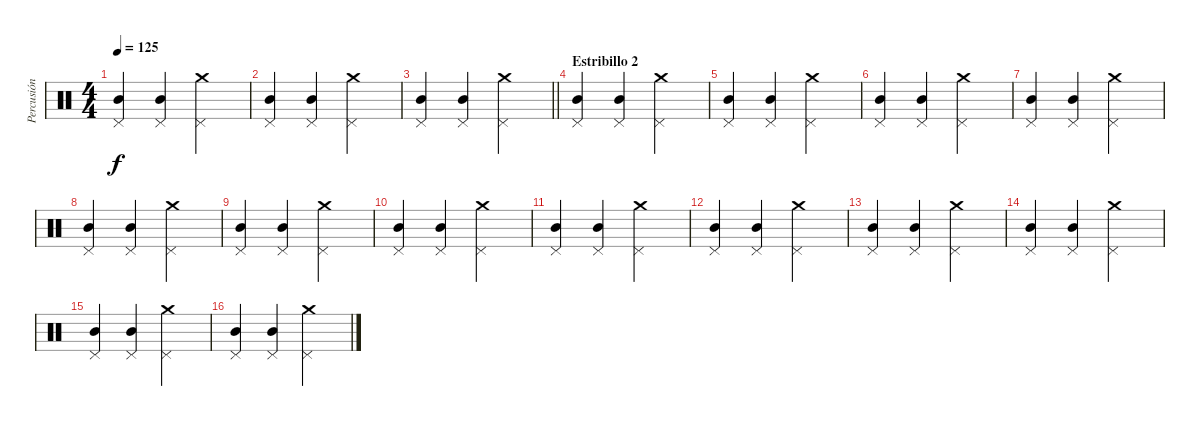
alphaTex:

\track ("Percusión" "Percusión") {instrument percussion}
\staff {score}
\articulation defaults
\ts (4 4)
\tempo 125
\clef neutral
\ks c
("Pedal Hi-Hat (hit)" "Mid Tom (hit)").4{dy f} ("Pedal Hi-Hat (hit)" "Mid Tom (hit)").4 ("Crash medium (hit)" "Pedal Hi-Hat (hit)").2 |
("Pedal Hi-Hat (hit)" "Mid Tom (hit)").4 ("Pedal Hi-Hat (hit)" "Mid Tom (hit)").4 ("Crash medium (hit)" "Pedal Hi-Hat (hit)").2 |
\barLineRight lightlight
("Pedal Hi-Hat (hit)" "Mid Tom (hit)").4 ("Pedal Hi-Hat (hit)" "Mid Tom (hit)").4 ("Crash medium (hit)" "Pedal Hi-Hat (hit)").2 |
\section ("" "Estribillo 2")
("Pedal Hi-Hat (hit)" "Mid Tom (hit)").4 ("Pedal Hi-Hat (hit)" "Mid Tom (hit)").4 ("Crash medium (hit)" "Pedal Hi-Hat (hit)").2 |
("Pedal Hi-Hat (hit)" "Mid Tom (hit)").4 ("Pedal Hi-Hat (hit)" "Mid Tom (hit)").4 ("Crash medium (hit)" "Pedal Hi-Hat (hit)").2 |
("Pedal Hi-Hat (hit)" "Mid Tom (hit)").4 ("Pedal Hi-Hat (hit)" "Mid Tom (hit)").4 ("Crash medium (hit)" "Pedal Hi-Hat (hit)").2 |
("Pedal Hi-Hat (hit)" "Mid Tom (hit)").4 ("Pedal Hi-Hat (hit)" "Mid Tom (hit)").4 ("Crash medium (hit)" "Pedal Hi-Hat (hit)").2 |
("Pedal Hi-Hat (hit)" "Mid Tom (hit)").4 ("Pedal Hi-Hat (hit)" "Mid Tom (hit)").4 ("Crash medium (hit)" "Pedal Hi-Hat (hit)").2 |
("Pedal Hi-Hat (hit)" "Mid Tom (hit)").4 ("Pedal Hi-Hat (hit)" "Mid Tom (hit)").4 ("Crash medium (hit)" "Pedal Hi-Hat (hit)").2 |
("Pedal Hi-Hat (hit)" "Mid Tom (hit)").4 ("Pedal Hi-Hat (hit)" "Mid Tom (hit)").4 ("Crash medium (hit)" "Pedal Hi-Hat (hit)").2 |
("Pedal Hi-Hat (hit)" "Mid Tom (hit)").4 ("Pedal Hi-Hat (hit)" "Mid Tom (hit)").4 ("Crash medium (hit)" "Pedal Hi-Hat (hit)").2 |
("Pedal Hi-Hat (hit)" "Mid Tom (hit)").4 ("Pedal Hi-Hat (hit)" "Mid Tom (hit)").4 ("Crash medium (hit)" "Pedal Hi-Hat (hit)").2 |
("Pedal Hi-Hat (hit)" "Mid Tom (hit)").4 ("Pedal Hi-Hat (hit)" "Mid Tom (hit)").4 ("Crash medium (hit)" "Pedal Hi-Hat (hit)").2 |
("Pedal Hi-Hat (hit)" "Mid Tom (hit)").4 ("Pedal Hi-Hat (hit)" "Mid Tom (hit)").4 ("Crash medium (hit)" "Pedal Hi-Hat (hit)").2 |
("Pedal Hi-Hat (hit)" "Mid Tom (hit)").4 ("Pedal Hi-Hat (hit)" "Mid Tom (hit)").4 ("Crash medium (hit)" "Pedal Hi-Hat (hit)").2 |
("Pedal Hi-Hat (hit)" "Mid Tom (hit)").4 ("Pedal Hi-Hat (hit)" "Mid Tom (hit)").4 ("Crash medium (hit)" "Pedal Hi-Hat (hit)").2
